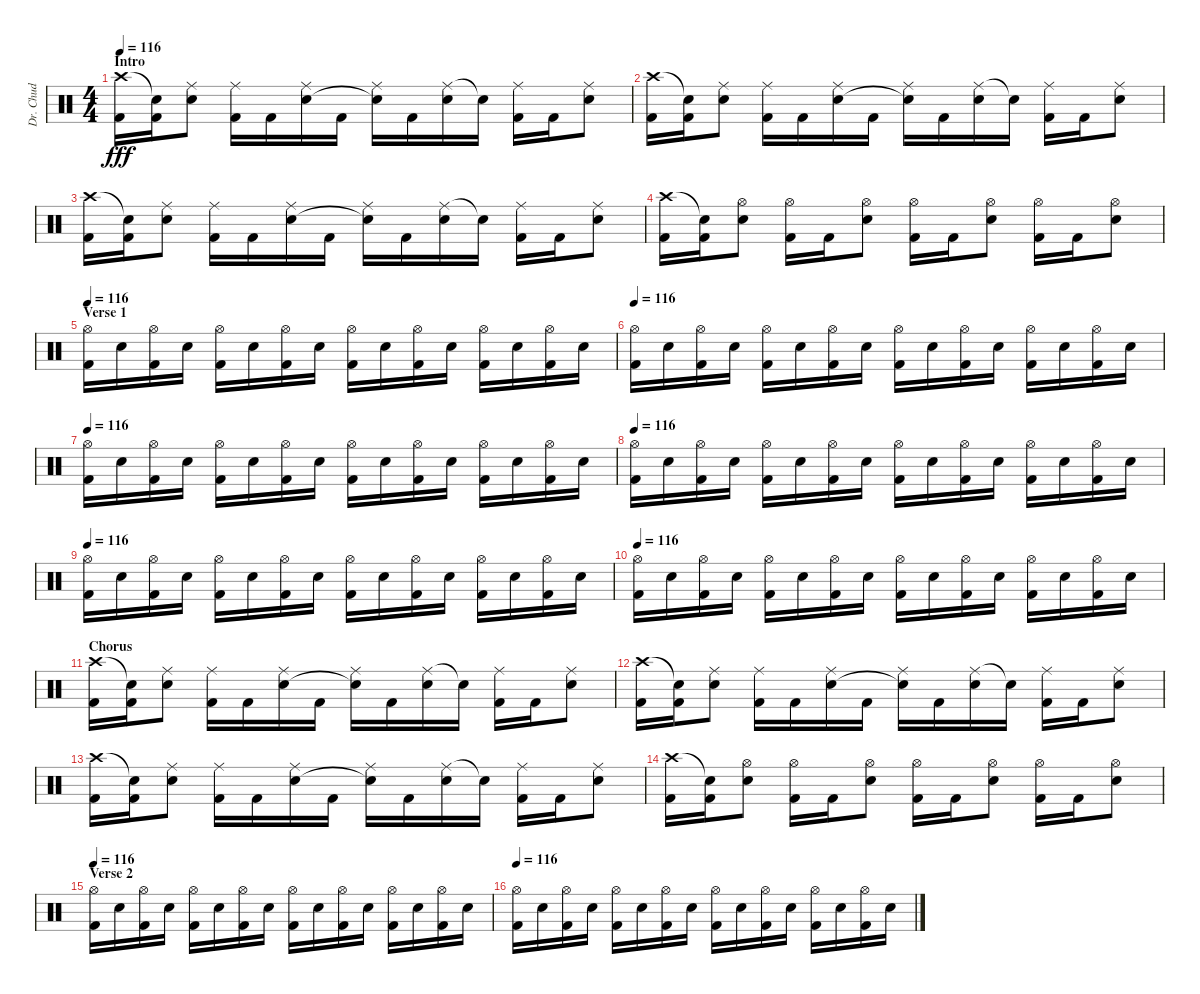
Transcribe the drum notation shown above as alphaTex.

\track ("Dr. Chud" "Dr. Chud") {instrument percussion}
\staff {score}
\articulation defaults
\ts (4 4)
\section ("" "Intro")
\tempo 116
\clef neutral
\ks c
("Crash high (hit)" "Kick (hit) 2").16{dy fff} ("Snare (hit)"{t} "Kick (hit) 2").16 ("Ride (middle)" "Electric Snare (hit)").8 ("Ride (middle)" "Kick (hit) 2").16 "Kick (hit) 2".16 ("Ride (middle)" "Electric Snare (hit)").16 "Kick (hit) 2".16 ("Ride (middle)" "Snare (hit)"{t}).16 "Kick (hit) 2".16 ("Ride (middle)" "Electric Snare (hit)").16 "Snare (hit)"{t}.16 ("Ride (middle)" "Kick (hit) 2").16 "Kick (hit) 2".16 ("Ride (middle)" "Electric Snare (hit)").8 |
("Crash high (hit)" "Kick (hit) 2").16 ("Snare (hit)"{t} "Kick (hit) 2").16 ("Ride (middle)" "Electric Snare (hit)").8 ("Ride (middle)" "Kick (hit) 2").16 "Kick (hit) 2".16 ("Ride (middle)" "Electric Snare (hit)").16 "Kick (hit) 2".16 ("Ride (middle)" "Snare (hit)"{t}).16 "Kick (hit) 2".16 ("Ride (middle)" "Electric Snare (hit)").16 "Snare (hit)"{t}.16 ("Ride (middle)" "Kick (hit) 2").16 "Kick (hit) 2".16 ("Ride (middle)" "Electric Snare (hit)").8 |
("Crash high (hit)" "Kick (hit) 2").16 ("Snare (hit)"{t} "Kick (hit) 2").16 ("Ride (middle)" "Electric Snare (hit)").8 ("Ride (middle)" "Kick (hit) 2").16 "Kick (hit) 2".16 ("Ride (middle)" "Electric Snare (hit)").16 "Kick (hit) 2".16 ("Ride (middle)" "Snare (hit)"{t}).16 "Kick (hit) 2".16 ("Ride (middle)" "Electric Snare (hit)").16 "Snare (hit)"{t}.16 ("Ride (middle)" "Kick (hit) 2").16 "Kick (hit) 2".16 ("Ride (middle)" "Electric Snare (hit)").8 |
("Crash high (hit)" "Kick (hit) 2").16 ("Snare (hit)"{t} "Kick (hit) 2").16 ("Hi-Hat (open)" "Electric Snare (hit)").8 ("Hi-Hat (open)" "Kick (hit) 2").16 "Kick (hit) 2".16 ("Hi-Hat (open)" "Electric Snare (hit)").8 ("Hi-Hat (open)" "Kick (hit) 2").16 "Kick (hit) 2".16 ("Hi-Hat (open)" "Electric Snare (hit)").8 ("Hi-Hat (open)" "Kick (hit) 2").16 "Kick (hit) 2".16 ("Hi-Hat (open)" "Electric Snare (hit)").8 |
\section ("" "Verse 1")
\tempo 116
("Hi-Hat (open)" "Kick (hit) 2").16 "Electric Snare (hit)".16 ("Hi-Hat (open)" "Kick (hit) 2").16 "Electric Snare (hit)".16 ("Hi-Hat (open)" "Kick (hit) 2").16 "Electric Snare (hit)".16 ("Hi-Hat (open)" "Kick (hit) 2").16 "Electric Snare (hit)".16 ("Hi-Hat (open)" "Kick (hit) 2").16 "Electric Snare (hit)".16 ("Hi-Hat (open)" "Kick (hit) 2").16 "Electric Snare (hit)".16 ("Hi-Hat (open)" "Kick (hit) 2").16 "Electric Snare (hit)".16 ("Hi-Hat (open)" "Kick (hit) 2").16 "Electric Snare (hit)".16 |
\tempo 116
("Hi-Hat (open)" "Kick (hit) 2").16 "Electric Snare (hit)".16 ("Hi-Hat (open)" "Kick (hit) 2").16 "Electric Snare (hit)".16 ("Hi-Hat (open)" "Kick (hit) 2").16 "Electric Snare (hit)".16 ("Hi-Hat (open)" "Kick (hit) 2").16 "Electric Snare (hit)".16 ("Hi-Hat (open)" "Kick (hit) 2").16 "Electric Snare (hit)".16 ("Hi-Hat (open)" "Kick (hit) 2").16 "Electric Snare (hit)".16 ("Hi-Hat (open)" "Kick (hit) 2").16 "Electric Snare (hit)".16 ("Hi-Hat (open)" "Kick (hit) 2").16 "Electric Snare (hit)".16 |
\tempo 116
("Hi-Hat (open)" "Kick (hit) 2").16 "Electric Snare (hit)".16 ("Hi-Hat (open)" "Kick (hit) 2").16 "Electric Snare (hit)".16 ("Hi-Hat (open)" "Kick (hit) 2").16 "Electric Snare (hit)".16 ("Hi-Hat (open)" "Kick (hit) 2").16 "Electric Snare (hit)".16 ("Hi-Hat (open)" "Kick (hit) 2").16 "Electric Snare (hit)".16 ("Hi-Hat (open)" "Kick (hit) 2").16 "Electric Snare (hit)".16 ("Hi-Hat (open)" "Kick (hit) 2").16 "Electric Snare (hit)".16 ("Hi-Hat (open)" "Kick (hit) 2").16 "Electric Snare (hit)".16 |
\tempo 116
("Hi-Hat (open)" "Kick (hit) 2").16 "Electric Snare (hit)".16 ("Hi-Hat (open)" "Kick (hit) 2").16 "Electric Snare (hit)".16 ("Hi-Hat (open)" "Kick (hit) 2").16 "Electric Snare (hit)".16 ("Hi-Hat (open)" "Kick (hit) 2").16 "Electric Snare (hit)".16 ("Hi-Hat (open)" "Kick (hit) 2").16 "Electric Snare (hit)".16 ("Hi-Hat (open)" "Kick (hit) 2").16 "Electric Snare (hit)".16 ("Hi-Hat (open)" "Kick (hit) 2").16 "Electric Snare (hit)".16 ("Hi-Hat (open)" "Kick (hit) 2").16 "Electric Snare (hit)".16 |
\tempo 116
("Hi-Hat (open)" "Kick (hit) 2").16 "Electric Snare (hit)".16 ("Hi-Hat (open)" "Kick (hit) 2").16 "Electric Snare (hit)".16 ("Hi-Hat (open)" "Kick (hit) 2").16 "Electric Snare (hit)".16 ("Hi-Hat (open)" "Kick (hit) 2").16 "Electric Snare (hit)".16 ("Hi-Hat (open)" "Kick (hit) 2").16 "Electric Snare (hit)".16 ("Hi-Hat (open)" "Kick (hit) 2").16 "Electric Snare (hit)".16 ("Hi-Hat (open)" "Kick (hit) 2").16 "Electric Snare (hit)".16 ("Hi-Hat (open)" "Kick (hit) 2").16 "Electric Snare (hit)".16 |
\tempo 116
("Hi-Hat (open)" "Kick (hit) 2").16 "Electric Snare (hit)".16 ("Hi-Hat (open)" "Kick (hit) 2").16 "Electric Snare (hit)".16 ("Hi-Hat (open)" "Kick (hit) 2").16 "Electric Snare (hit)".16 ("Hi-Hat (open)" "Kick (hit) 2").16 "Electric Snare (hit)".16 ("Hi-Hat (open)" "Kick (hit) 2").16 "Electric Snare (hit)".16 ("Hi-Hat (open)" "Kick (hit) 2").16 "Electric Snare (hit)".16 ("Hi-Hat (open)" "Kick (hit) 2").16 "Electric Snare (hit)".16 ("Hi-Hat (open)" "Kick (hit) 2").16 "Electric Snare (hit)".16 |
\section ("" "Chorus")
("Crash high (hit)" "Kick (hit) 2").16 ("Snare (hit)"{t} "Kick (hit) 2").16 ("Ride (middle)" "Electric Snare (hit)").8 ("Ride (middle)" "Kick (hit) 2").16 "Kick (hit) 2".16 ("Ride (middle)" "Electric Snare (hit)").16 "Kick (hit) 2".16 ("Ride (middle)" "Snare (hit)"{t}).16 "Kick (hit) 2".16 ("Ride (middle)" "Electric Snare (hit)").16 "Snare (hit)"{t}.16 ("Ride (middle)" "Kick (hit) 2").16 "Kick (hit) 2".16 ("Ride (middle)" "Electric Snare (hit)").8 |
("Crash high (hit)" "Kick (hit) 2").16 ("Snare (hit)"{t} "Kick (hit) 2").16 ("Ride (middle)" "Electric Snare (hit)").8 ("Ride (middle)" "Kick (hit) 2").16 "Kick (hit) 2".16 ("Ride (middle)" "Electric Snare (hit)").16 "Kick (hit) 2".16 ("Ride (middle)" "Snare (hit)"{t}).16 "Kick (hit) 2".16 ("Ride (middle)" "Electric Snare (hit)").16 "Snare (hit)"{t}.16 ("Ride (middle)" "Kick (hit) 2").16 "Kick (hit) 2".16 ("Ride (middle)" "Electric Snare (hit)").8 |
("Crash high (hit)" "Kick (hit) 2").16 ("Snare (hit)"{t} "Kick (hit) 2").16 ("Ride (middle)" "Electric Snare (hit)").8 ("Ride (middle)" "Kick (hit) 2").16 "Kick (hit) 2".16 ("Ride (middle)" "Electric Snare (hit)").16 "Kick (hit) 2".16 ("Ride (middle)" "Snare (hit)"{t}).16 "Kick (hit) 2".16 ("Ride (middle)" "Electric Snare (hit)").16 "Snare (hit)"{t}.16 ("Ride (middle)" "Kick (hit) 2").16 "Kick (hit) 2".16 ("Ride (middle)" "Electric Snare (hit)").8 |
("Crash high (hit)" "Kick (hit) 2").16 ("Snare (hit)"{t} "Kick (hit) 2").16 ("Hi-Hat (open)" "Electric Snare (hit)").8 ("Hi-Hat (open)" "Kick (hit) 2").16 "Kick (hit) 2".16 ("Hi-Hat (open)" "Electric Snare (hit)").8 ("Hi-Hat (open)" "Kick (hit) 2").16 "Kick (hit) 2".16 ("Hi-Hat (open)" "Electric Snare (hit)").8 ("Hi-Hat (open)" "Kick (hit) 2").16 "Kick (hit) 2".16 ("Hi-Hat (open)" "Electric Snare (hit)").8 |
\section ("" "Verse 2")
\tempo 116
("Hi-Hat (open)" "Kick (hit) 2").16 "Electric Snare (hit)".16 ("Hi-Hat (open)" "Kick (hit) 2").16 "Electric Snare (hit)".16 ("Hi-Hat (open)" "Kick (hit) 2").16 "Electric Snare (hit)".16 ("Hi-Hat (open)" "Kick (hit) 2").16 "Electric Snare (hit)".16 ("Hi-Hat (open)" "Kick (hit) 2").16 "Electric Snare (hit)".16 ("Hi-Hat (open)" "Kick (hit) 2").16 "Electric Snare (hit)".16 ("Hi-Hat (open)" "Kick (hit) 2").16 "Electric Snare (hit)".16 ("Hi-Hat (open)" "Kick (hit) 2").16 "Electric Snare (hit)".16 |
\tempo 116
("Hi-Hat (open)" "Kick (hit) 2").16 "Electric Snare (hit)".16 ("Hi-Hat (open)" "Kick (hit) 2").16 "Electric Snare (hit)".16 ("Hi-Hat (open)" "Kick (hit) 2").16 "Electric Snare (hit)".16 ("Hi-Hat (open)" "Kick (hit) 2").16 "Electric Snare (hit)".16 ("Hi-Hat (open)" "Kick (hit) 2").16 "Electric Snare (hit)".16 ("Hi-Hat (open)" "Kick (hit) 2").16 "Electric Snare (hit)".16 ("Hi-Hat (open)" "Kick (hit) 2").16 "Electric Snare (hit)".16 ("Hi-Hat (open)" "Kick (hit) 2").16 "Electric Snare (hit)".16
